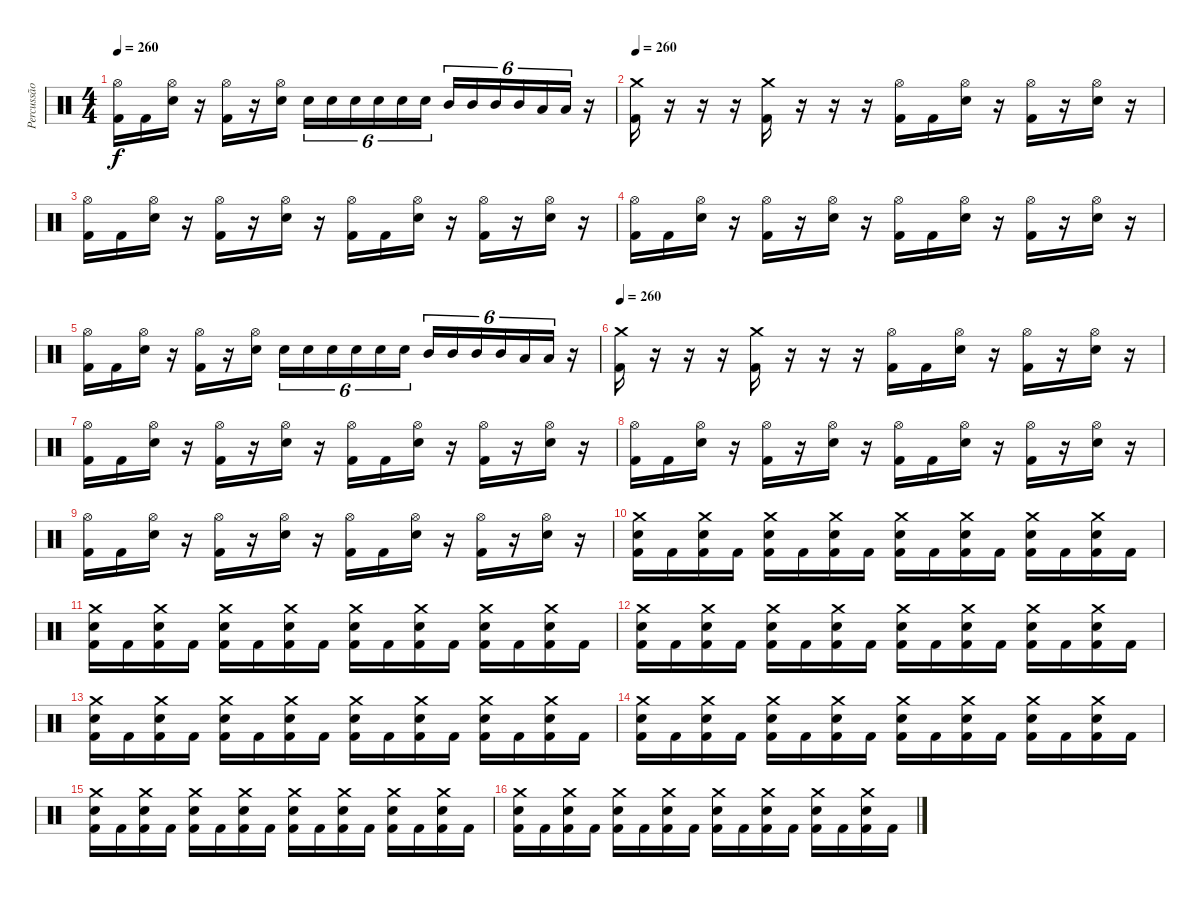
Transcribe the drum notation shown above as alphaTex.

\track ("Percussão" "Percussão") {instrument percussion}
\staff {score}
\articulation defaults
\ts (4 4)
\tempo 260
\clef neutral
\ks c
("Hi-Hat (open)" "Kick (hit) 2").16{dy f} "Kick (hit) 2".16 ("Hi-Hat (open)" "Snare (hit) 2").16 r.16 ("Hi-Hat (open)" "Kick (hit) 2").16 r.16 ("Hi-Hat (open)" "Snare (hit) 2").16 "Snare (hit) 2".16{tu (6 4)} "Snare (hit) 2".16{tu (6 4)} "Snare (hit) 2".16{tu (6 4)} "Snare (hit) 2".16{tu (6 4)} "Snare (hit) 2".16{tu (6 4)} "Snare (hit) 2".16{tu (6 4)} "Mid Tom (hit)".16{tu (6 4)} "Mid Tom (hit)".16{tu (6 4)} "Mid Tom (hit)".16{tu (6 4)} "Mid Tom (hit)".16{tu (6 4)} "Low Tom (hit)".16{tu (6 4)} "Low Tom (hit)".16{tu (6 4)} r.16 |
\tempo 260
("Crash medium (hit)" "Kick (hit) 2").16 r.16 r.16 r.16 ("Crash medium (hit)" "Kick (hit) 2").16 r.16 r.16 r.16 ("Hi-Hat (open)" "Kick (hit) 2").16 "Kick (hit) 2".16 ("Hi-Hat (open)" "Snare (hit) 2").16 r.16 ("Hi-Hat (open)" "Kick (hit) 2").16 r.16 ("Hi-Hat (open)" "Snare (hit) 2").16 r.16 |
("Hi-Hat (open)" "Kick (hit) 2").16 "Kick (hit) 2".16 ("Hi-Hat (open)" "Snare (hit) 2").16 r.16 ("Hi-Hat (open)" "Kick (hit) 2").16 r.16 ("Hi-Hat (open)" "Snare (hit) 2").16 r.16 ("Hi-Hat (open)" "Kick (hit) 2").16 "Kick (hit) 2".16 ("Hi-Hat (open)" "Snare (hit) 2").16 r.16 ("Hi-Hat (open)" "Kick (hit) 2").16 r.16 ("Hi-Hat (open)" "Snare (hit) 2").16 r.16 |
("Hi-Hat (open)" "Kick (hit) 2").16 "Kick (hit) 2".16 ("Hi-Hat (open)" "Snare (hit) 2").16 r.16 ("Hi-Hat (open)" "Kick (hit) 2").16 r.16 ("Hi-Hat (open)" "Snare (hit) 2").16 r.16 ("Hi-Hat (open)" "Kick (hit) 2").16 "Kick (hit) 2".16 ("Hi-Hat (open)" "Snare (hit) 2").16 r.16 ("Hi-Hat (open)" "Kick (hit) 2").16 r.16 ("Hi-Hat (open)" "Snare (hit) 2").16 r.16 |
("Hi-Hat (open)" "Kick (hit) 2").16 "Kick (hit) 2".16 ("Hi-Hat (open)" "Snare (hit) 2").16 r.16 ("Hi-Hat (open)" "Kick (hit) 2").16 r.16 ("Hi-Hat (open)" "Snare (hit) 2").16 "Snare (hit) 2".16{tu (6 4)} "Snare (hit) 2".16{tu (6 4)} "Snare (hit) 2".16{tu (6 4)} "Snare (hit) 2".16{tu (6 4)} "Snare (hit) 2".16{tu (6 4)} "Snare (hit) 2".16{tu (6 4)} "Mid Tom (hit)".16{tu (6 4)} "Mid Tom (hit)".16{tu (6 4)} "Mid Tom (hit)".16{tu (6 4)} "Mid Tom (hit)".16{tu (6 4)} "Low Tom (hit)".16{tu (6 4)} "Low Tom (hit)".16{tu (6 4)} r.16 |
\tempo 260
("Crash medium (hit)" "Kick (hit) 2").16 r.16 r.16 r.16 ("Crash medium (hit)" "Kick (hit) 2").16 r.16 r.16 r.16 ("Hi-Hat (open)" "Kick (hit) 2").16 "Kick (hit) 2".16 ("Hi-Hat (open)" "Snare (hit) 2").16 r.16 ("Hi-Hat (open)" "Kick (hit) 2").16 r.16 ("Hi-Hat (open)" "Snare (hit) 2").16 r.16 |
("Hi-Hat (open)" "Kick (hit) 2").16 "Kick (hit) 2".16 ("Hi-Hat (open)" "Snare (hit) 2").16 r.16 ("Hi-Hat (open)" "Kick (hit) 2").16 r.16 ("Hi-Hat (open)" "Snare (hit) 2").16 r.16 ("Hi-Hat (open)" "Kick (hit) 2").16 "Kick (hit) 2".16 ("Hi-Hat (open)" "Snare (hit) 2").16 r.16 ("Hi-Hat (open)" "Kick (hit) 2").16 r.16 ("Hi-Hat (open)" "Snare (hit) 2").16 r.16 |
("Hi-Hat (open)" "Kick (hit) 2").16 "Kick (hit) 2".16 ("Hi-Hat (open)" "Snare (hit) 2").16 r.16 ("Hi-Hat (open)" "Kick (hit) 2").16 r.16 ("Hi-Hat (open)" "Snare (hit) 2").16 r.16 ("Hi-Hat (open)" "Kick (hit) 2").16 "Kick (hit) 2".16 ("Hi-Hat (open)" "Snare (hit) 2").16 r.16 ("Hi-Hat (open)" "Kick (hit) 2").16 r.16 ("Hi-Hat (open)" "Snare (hit) 2").16 r.16 |
("Hi-Hat (open)" "Kick (hit) 2").16 "Kick (hit) 2".16 ("Hi-Hat (open)" "Snare (hit) 2").16 r.16 ("Hi-Hat (open)" "Kick (hit) 2").16 r.16 ("Hi-Hat (open)" "Snare (hit) 2").16 r.16 ("Hi-Hat (open)" "Kick (hit) 2").16 "Kick (hit) 2".16 ("Hi-Hat (open)" "Snare (hit) 2").16 r.16 ("Hi-Hat (open)" "Kick (hit) 2").16 r.16 ("Hi-Hat (open)" "Snare (hit) 2").16 r.16 |
("Crash medium (hit)" "Snare (hit) 2" "Kick (hit) 2").16 "Kick (hit) 2".16 ("Crash medium (hit)" "Snare (hit) 2" "Kick (hit) 2").16 "Kick (hit) 2".16 ("Crash medium (hit)" "Snare (hit) 2" "Kick (hit) 2").16 "Kick (hit) 2".16 ("Crash medium (hit)" "Snare (hit) 2" "Kick (hit) 2").16 "Kick (hit) 2".16 ("Crash medium (hit)" "Snare (hit) 2" "Kick (hit) 2").16 "Kick (hit) 2".16 ("Crash medium (hit)" "Snare (hit) 2" "Kick (hit) 2").16 "Kick (hit) 2".16 ("Crash medium (hit)" "Snare (hit) 2" "Kick (hit) 2").16 "Kick (hit) 2".16 ("Crash medium (hit)" "Snare (hit) 2" "Kick (hit) 2").16 "Kick (hit) 2".16 |
("Crash medium (hit)" "Snare (hit) 2" "Kick (hit) 2").16 "Kick (hit) 2".16 ("Crash medium (hit)" "Snare (hit) 2" "Kick (hit) 2").16 "Kick (hit) 2".16 ("Crash medium (hit)" "Snare (hit) 2" "Kick (hit) 2").16 "Kick (hit) 2".16 ("Crash medium (hit)" "Snare (hit) 2" "Kick (hit) 2").16 "Kick (hit) 2".16 ("Crash medium (hit)" "Snare (hit) 2" "Kick (hit) 2").16 "Kick (hit) 2".16 ("Crash medium (hit)" "Snare (hit) 2" "Kick (hit) 2").16 "Kick (hit) 2".16 ("Crash medium (hit)" "Snare (hit) 2" "Kick (hit) 2").16 "Kick (hit) 2".16 ("Crash medium (hit)" "Snare (hit) 2" "Kick (hit) 2").16 "Kick (hit) 2".16 |
("Crash medium (hit)" "Snare (hit) 2" "Kick (hit) 2").16 "Kick (hit) 2".16 ("Crash medium (hit)" "Snare (hit) 2" "Kick (hit) 2").16 "Kick (hit) 2".16 ("Crash medium (hit)" "Snare (hit) 2" "Kick (hit) 2").16 "Kick (hit) 2".16 ("Crash medium (hit)" "Snare (hit) 2" "Kick (hit) 2").16 "Kick (hit) 2".16 ("Crash medium (hit)" "Snare (hit) 2" "Kick (hit) 2").16 "Kick (hit) 2".16 ("Crash medium (hit)" "Snare (hit) 2" "Kick (hit) 2").16 "Kick (hit) 2".16 ("Crash medium (hit)" "Snare (hit) 2" "Kick (hit) 2").16 "Kick (hit) 2".16 ("Crash medium (hit)" "Snare (hit) 2" "Kick (hit) 2").16 "Kick (hit) 2".16 |
("Crash medium (hit)" "Snare (hit) 2" "Kick (hit) 2").16 "Kick (hit) 2".16 ("Crash medium (hit)" "Snare (hit) 2" "Kick (hit) 2").16 "Kick (hit) 2".16 ("Crash medium (hit)" "Snare (hit) 2" "Kick (hit) 2").16 "Kick (hit) 2".16 ("Crash medium (hit)" "Snare (hit) 2" "Kick (hit) 2").16 "Kick (hit) 2".16 ("Crash medium (hit)" "Snare (hit) 2" "Kick (hit) 2").16 "Kick (hit) 2".16 ("Crash medium (hit)" "Snare (hit) 2" "Kick (hit) 2").16 "Kick (hit) 2".16 ("Crash medium (hit)" "Snare (hit) 2" "Kick (hit) 2").16 "Kick (hit) 2".16 ("Crash medium (hit)" "Snare (hit) 2" "Kick (hit) 2").16 "Kick (hit) 2".16 |
("Crash medium (hit)" "Snare (hit) 2" "Kick (hit) 2").16 "Kick (hit) 2".16 ("Crash medium (hit)" "Snare (hit) 2" "Kick (hit) 2").16 "Kick (hit) 2".16 ("Crash medium (hit)" "Snare (hit) 2" "Kick (hit) 2").16 "Kick (hit) 2".16 ("Crash medium (hit)" "Snare (hit) 2" "Kick (hit) 2").16 "Kick (hit) 2".16 ("Crash medium (hit)" "Snare (hit) 2" "Kick (hit) 2").16 "Kick (hit) 2".16 ("Crash medium (hit)" "Snare (hit) 2" "Kick (hit) 2").16 "Kick (hit) 2".16 ("Crash medium (hit)" "Snare (hit) 2" "Kick (hit) 2").16 "Kick (hit) 2".16 ("Crash medium (hit)" "Snare (hit) 2" "Kick (hit) 2").16 "Kick (hit) 2".16 |
("Crash medium (hit)" "Snare (hit) 2" "Kick (hit) 2").16 "Kick (hit) 2".16 ("Crash medium (hit)" "Snare (hit) 2" "Kick (hit) 2").16 "Kick (hit) 2".16 ("Crash medium (hit)" "Snare (hit) 2" "Kick (hit) 2").16 "Kick (hit) 2".16 ("Crash medium (hit)" "Snare (hit) 2" "Kick (hit) 2").16 "Kick (hit) 2".16 ("Crash medium (hit)" "Snare (hit) 2" "Kick (hit) 2").16 "Kick (hit) 2".16 ("Crash medium (hit)" "Snare (hit) 2" "Kick (hit) 2").16 "Kick (hit) 2".16 ("Crash medium (hit)" "Snare (hit) 2" "Kick (hit) 2").16 "Kick (hit) 2".16 ("Crash medium (hit)" "Snare (hit) 2" "Kick (hit) 2").16 "Kick (hit) 2".16 |
("Crash medium (hit)" "Snare (hit) 2" "Kick (hit) 2").16 "Kick (hit) 2".16 ("Crash medium (hit)" "Snare (hit) 2" "Kick (hit) 2").16 "Kick (hit) 2".16 ("Crash medium (hit)" "Snare (hit) 2" "Kick (hit) 2").16 "Kick (hit) 2".16 ("Crash medium (hit)" "Snare (hit) 2" "Kick (hit) 2").16 "Kick (hit) 2".16 ("Crash medium (hit)" "Snare (hit) 2" "Kick (hit) 2").16 "Kick (hit) 2".16 ("Crash medium (hit)" "Snare (hit) 2" "Kick (hit) 2").16 "Kick (hit) 2".16 ("Crash medium (hit)" "Snare (hit) 2" "Kick (hit) 2").16 "Kick (hit) 2".16 ("Crash medium (hit)" "Snare (hit) 2" "Kick (hit) 2").16 "Kick (hit) 2".16
